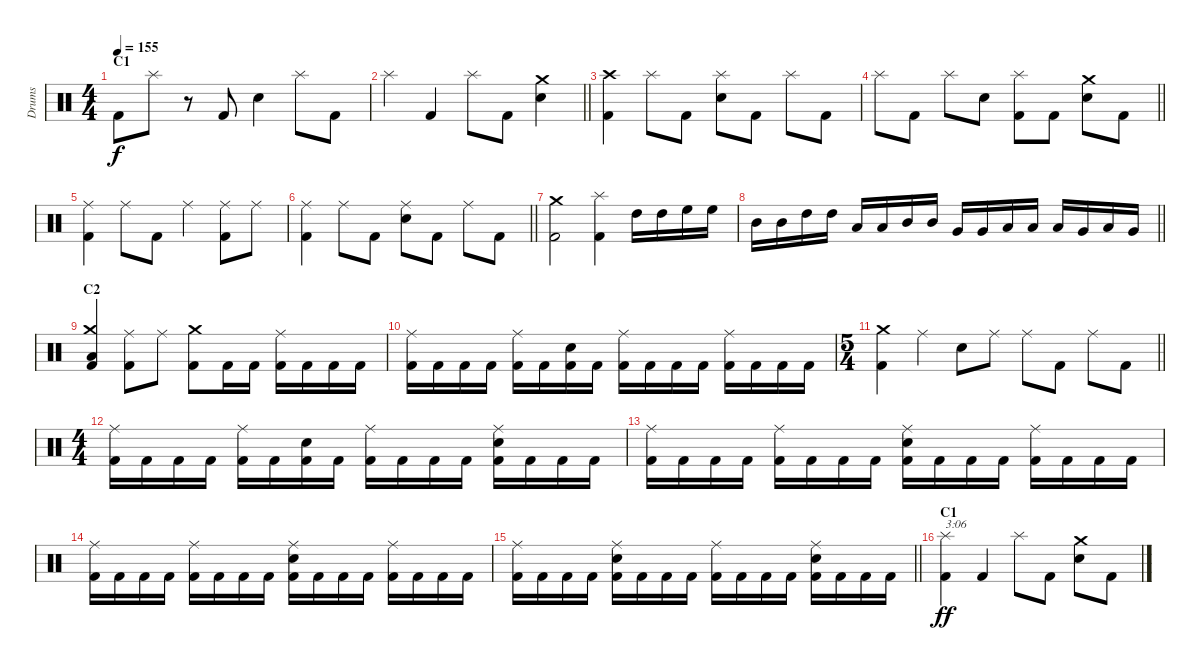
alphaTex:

\track ("Drums" "Drums") {instrument percussion}
\staff {score}
\articulation defaults
\ts (4 4)
\section ("" "C1")
\tempo 155
\clef neutral
\ks c "Kick (hit) 2".8{dy f} "Splash (hit)".8
r.8 "Kick (hit) 2".8 "Electric Snare (hit)".4 "Splash (hit)".8 "Kick (hit) 2".8 |
\barLineRight lightlight "Splash (hit)".4 "Kick (hit) 2".4 "Splash (hit)".8 "Kick (hit) 2".8
("Crash medium (hit)" "Electric Snare (hit)").4 |
\section ("" "")
("Crash high (hit)" "Kick (hit) 2").4 "Splash (hit)".8 "Kick (hit) 2".8 ("Splash (hit)" "Electric Snare (hit)").8 "Kick (hit) 2".8 "Splash (hit)".8 "Kick (hit) 2".8 |
\barLineRight lightlight "Splash (hit)".8 "Kick (hit) 2".8 "Splash (hit)".8 "Electric Snare (hit)".8
("Splash (hit)" "Kick (hit) 2").8 "Kick (hit) 2".8 ("Crash medium (hit)" "Electric Snare (hit)").8 "Kick (hit) 2".8 |
\section ("" "")
("Ride (middle)" "Kick (hit) 2").4 "Ride (middle)".8 "Kick (hit) 2".8 "Ride (middle)".4 ("Ride (middle)" "Kick (hit) 2").8 "Ride (middle)".8 |
\barLineRight lightlight
("Ride (middle)" "Kick (hit) 2").4 "Ride (middle)".8 "Kick (hit) 2".8 ("Ride (middle)" "Electric Snare (hit)").8 "Kick (hit) 2".8 "Ride (middle)".8 "Kick (hit) 2".8 |
\section ("" "")
("Crash medium (hit)" "Kick (hit) 2").2 ("Splash (hit)" "Kick (hit) 2").4 "High Tom (hit)".16 "High Tom (hit)".16 "High Floor Tom (hit)".16 "High Floor Tom (hit)".16 |
\barLineRight lightlight "Mid Tom (hit)".16 "Mid Tom (hit)".16 "High Tom (hit)".16 "High Tom (hit)".16 "Low Tom (hit)".16 "Low Tom (hit)".16 "Mid Tom (hit)".16 "Mid Tom (hit)".16 "Very Low Tom (hit)".16 "Very Low Tom (hit)".16 "Low Tom (hit)".16 "Low Tom (hit)".16 "Low Floor Tom (hit)".16 "Very Low Tom (hit)".16 "Low Floor Tom (hit)".16 "Very Low Tom (hit)".16
|
\section ("" "C2")
("Crash medium (hit)" "Low Floor Tom (hit)" "Kick (hit) 2").4 ("Ride (middle)" "Kick (hit) 2").8 "Ride (middle)".8 ("Crash medium (hit)" "Kick (hit) 2").8 "Kick (hit) 2".16 "Kick (hit) 2".16 ("Ride (middle)" "Kick (hit) 2").16 "Kick (hit) 2".16 "Kick (hit) 2".16 "Kick (hit) 2".16 |
("Ride (middle)" "Kick (hit) 2").16 "Kick (hit) 2".16 "Kick (hit) 2".16 "Kick (hit) 2".16 ("Ride (middle)" "Kick (hit) 2").16 "Kick (hit) 2".16 ("Electric Snare (hit)" "Kick (hit) 2").16 "Kick (hit) 2".16 ("Ride (middle)" "Kick (hit) 2").16 "Kick (hit) 2".16 "Kick (hit) 2".16 "Kick (hit) 2".16 ("Ride (middle)" "Kick (hit) 2").16 "Kick (hit) 2".16 "Kick (hit) 2".16 "Kick (hit) 2".16 |
\ts (5 4)
\barLineRight lightlight
("Crash medium (hit)" "Kick (hit) 2").4 "Ride (middle)".4 "Electric Snare (hit)".8 "Ride (middle)".8 "Ride (middle)".8 "Kick (hit) 2".8 "Ride (middle)".8 "Kick (hit) 2".8 |
\ts (4 4)
\section ("" "")
("Ride (middle)" "Kick (hit) 2").16 "Kick (hit) 2".16 "Kick (hit) 2".16 "Kick (hit) 2".16 ("Ride (middle)" "Kick (hit) 2").16 "Kick (hit) 2".16 ("Electric Snare (hit)" "Kick (hit) 2").16 "Kick (hit) 2".16 ("Ride (middle)" "Kick (hit) 2").16 "Kick (hit) 2".16 "Kick (hit) 2".16 "Kick (hit) 2".16 ("Ride (middle)" "Electric Snare (hit)" "Kick (hit) 2").16 "Kick (hit) 2".16 "Kick (hit) 2".16 "Kick (hit) 2".16 |
("Ride (middle)" "Kick (hit) 2").16 "Kick (hit) 2".16 "Kick (hit) 2".16 "Kick (hit) 2".16 ("Ride (middle)" "Kick (hit) 2").16 "Kick (hit) 2".16 "Kick (hit) 2".16 "Kick (hit) 2".16 ("Ride (middle)" "Electric Snare (hit)" "Kick (hit) 2").16 "Kick (hit) 2".16 "Kick (hit) 2".16 "Kick (hit) 2".16 ("Ride (middle)" "Kick (hit) 2").16 "Kick (hit) 2".16 "Kick (hit) 2".16 "Kick (hit) 2".16 |
("Ride (middle)" "Kick (hit) 2").16 "Kick (hit) 2".16 "Kick (hit) 2".16 "Kick (hit) 2".16 ("Ride (middle)" "Kick (hit) 2").16 "Kick (hit) 2".16 "Kick (hit) 2".16 "Kick (hit) 2".16 ("Ride (middle)" "Electric Snare (hit)" "Kick (hit) 2").16 "Kick (hit) 2".16 "Kick (hit) 2".16 "Kick (hit) 2".16 ("Ride (middle)" "Kick (hit) 2").16 "Kick (hit) 2".16 "Kick (hit) 2".16 "Kick (hit) 2".16 |
\barLineRight lightlight
("Ride (middle)" "Kick (hit) 2").16 "Kick (hit) 2".16 "Kick (hit) 2".16 "Kick (hit) 2".16 ("Ride (middle)" "Electric Snare (hit)" "Kick (hit) 2").16 "Kick (hit) 2".16 "Kick (hit) 2".16 "Kick (hit) 2".16 ("Ride (middle)" "Kick (hit) 2").16 "Kick (hit) 2".16 "Kick (hit) 2".16 "Kick (hit) 2".16 ("Ride (middle)" "Electric Snare (hit)" "Kick (hit) 2").16 "Kick (hit) 2".16 "Kick (hit) 2".16 "Kick (hit) 2".16 |
\section ("" "C1")
("Splash (hit)" "Kick (hit) 2").4{txt "3:06" dy ff} "Kick (hit) 2".4 "Splash (hit)".8 "Kick (hit) 2".8 ("Crash medium (hit)" "Electric Snare (hit)").8 "Kick (hit) 2".8
